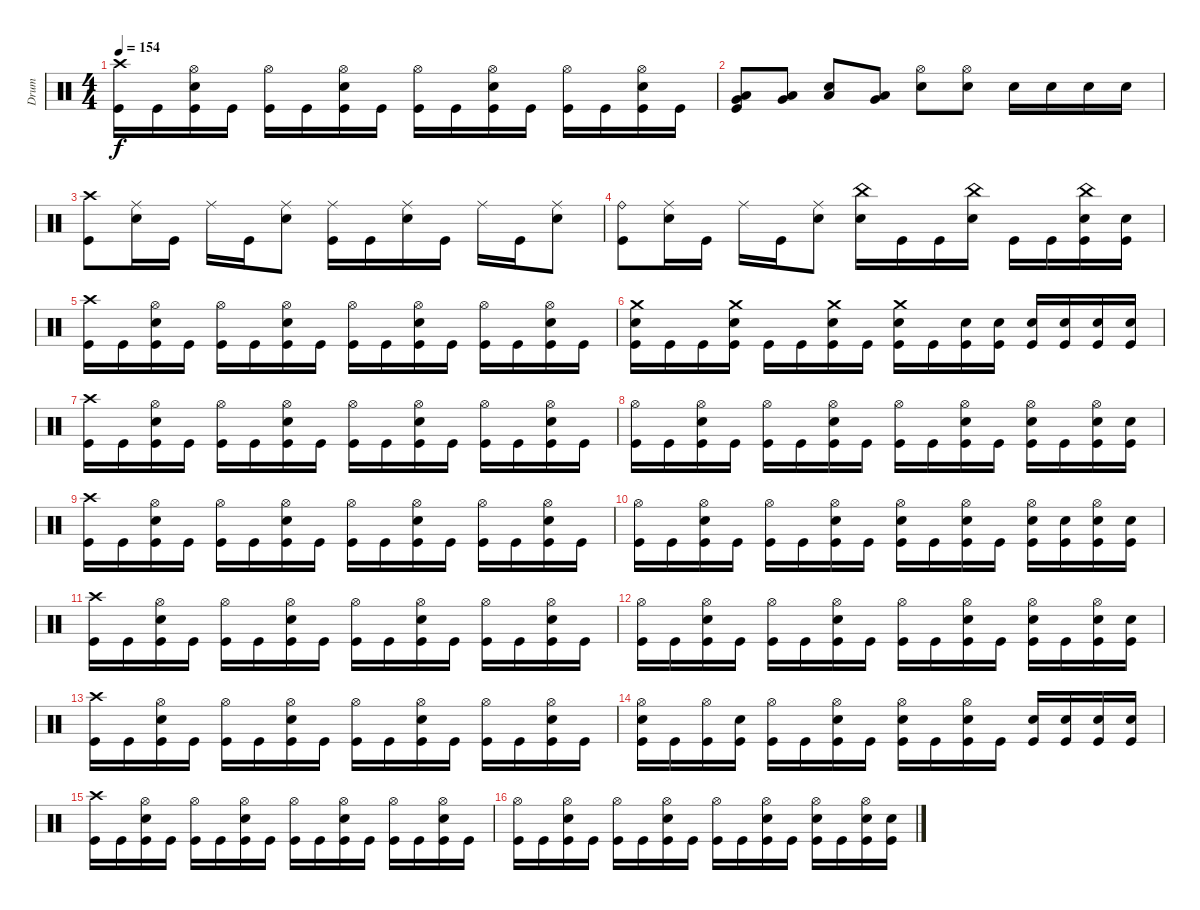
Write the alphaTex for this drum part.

\track ("Drum" "Drum") {instrument percussion}
\staff {score}
\articulation defaults
\ts (4 4)
\tempo 154
\clef neutral
\ks c
("Kick (hit)" "Crash high (hit)").16{dy f} "Kick (hit)".16 ("Kick (hit)" "Electric Snare (hit)" "Hi-Hat (open)").16 "Kick (hit)".16 ("Kick (hit)" "Hi-Hat (open)").16 "Kick (hit)".16 ("Kick (hit)" "Electric Snare (hit)" "Hi-Hat (open)").16 "Kick (hit)".16 ("Kick (hit)" "Hi-Hat (open)").16 "Kick (hit)".16 ("Kick (hit)" "Electric Snare (hit)" "Hi-Hat (open)").16 "Kick (hit)".16 ("Kick (hit)" "Hi-Hat (open)").16 "Kick (hit)".16 ("Kick (hit)" "Electric Snare (hit)" "Hi-Hat (open)").16 "Kick (hit)".16 |
("Kick (hit)" "Very Low Tom (hit)" "Low Tom (hit)").8 ("Very Low Tom (hit)" "Low Tom (hit)").8 ("Electric Snare (hit)" "Low Floor Tom (hit)").8 ("Very Low Tom (hit)" "Low Tom (hit)").8 ("Electric Snare (hit)" "Hi-Hat (open)").8 ("Electric Snare (hit)" "Hi-Hat (open)").8 "Electric Snare (hit)".16 "Electric Snare (hit)".16 "Electric Snare (hit)".16 "Electric Snare (hit)".16 |
("Kick (hit)" "Crash high (hit)").8 ("Electric Snare (hit)" "Ride (middle)").16 "Kick (hit)".16 "Ride (middle)".16 "Kick (hit)".16 ("Electric Snare (hit)" "Ride (middle)").8 ("Kick (hit)" "Ride (middle)").16 "Kick (hit)".16 ("Electric Snare (hit)" "Ride (middle)").16 "Kick (hit)".16 "Ride (middle)".16 "Kick (hit)".16 ("Electric Snare (hit)" "Ride (middle)").8 |
("Kick (hit)" "Ride (bell)").8 ("Electric Snare (hit)" "Ride (middle)").16 "Kick (hit)".16 "Ride (middle)".16 "Kick (hit)".16 ("Electric Snare (hit)" "Ride (middle)").8 ("Electric Snare (hit)" "China (hit)").16 "Kick (hit)".16 "Kick (hit)".16 ("Electric Snare (hit)" "China (hit)").16 "Kick (hit)".16 "Kick (hit)".16 ("Kick (hit)" "Electric Snare (hit)" "China (hit)").16 ("Kick (hit)" "Electric Snare (hit)").16 |
("Kick (hit)" "Crash high (hit)").16 "Kick (hit)".16 ("Kick (hit)" "Electric Snare (hit)" "Hi-Hat (open)").16 "Kick (hit)".16 ("Kick (hit)" "Hi-Hat (open)").16 "Kick (hit)".16 ("Kick (hit)" "Electric Snare (hit)" "Hi-Hat (open)").16 "Kick (hit)".16 ("Kick (hit)" "Hi-Hat (open)").16 "Kick (hit)".16 ("Kick (hit)" "Electric Snare (hit)" "Hi-Hat (open)").16 "Kick (hit)".16 ("Kick (hit)" "Hi-Hat (open)").16 "Kick (hit)".16 ("Kick (hit)" "Electric Snare (hit)" "Hi-Hat (open)").16 "Kick (hit)".16 |
("Kick (hit)" "Electric Snare (hit)" "Crash medium (hit)").16 "Kick (hit)".16 "Kick (hit)".16 ("Kick (hit)" "Electric Snare (hit)" "Crash medium (hit)").16 "Kick (hit)".16 "Kick (hit)".16 ("Kick (hit)" "Electric Snare (hit)" "Crash medium (hit)").16 "Kick (hit)".16 ("Kick (hit)" "Electric Snare (hit)" "Crash medium (hit)").16 "Kick (hit)".16 ("Kick (hit)" "Electric Snare (hit)").16 ("Kick (hit)" "Electric Snare (hit)").16 ("Kick (hit)" "Electric Snare (hit)").16 ("Kick (hit)" "Electric Snare (hit)").16 ("Kick (hit)" "Electric Snare (hit)").16 ("Kick (hit)" "Electric Snare (hit)").16 |
("Kick (hit)" "Crash high (hit)").16 "Kick (hit)".16 ("Kick (hit)" "Electric Snare (hit)" "Hi-Hat (open)").16 "Kick (hit)".16 ("Kick (hit)" "Hi-Hat (open)").16 "Kick (hit)".16 ("Kick (hit)" "Electric Snare (hit)" "Hi-Hat (open)").16 "Kick (hit)".16 ("Kick (hit)" "Hi-Hat (open)").16 "Kick (hit)".16 ("Kick (hit)" "Electric Snare (hit)" "Hi-Hat (open)").16 "Kick (hit)".16 ("Kick (hit)" "Hi-Hat (open)").16 "Kick (hit)".16 ("Kick (hit)" "Electric Snare (hit)" "Hi-Hat (open)").16 "Kick (hit)".16 |
("Kick (hit)" "Hi-Hat (open)").16 "Kick (hit)".16 ("Kick (hit)" "Electric Snare (hit)" "Hi-Hat (open)").16 "Kick (hit)".16 ("Kick (hit)" "Hi-Hat (open)").16 "Kick (hit)".16 ("Kick (hit)" "Electric Snare (hit)" "Hi-Hat (open)").16 "Kick (hit)".16 ("Kick (hit)" "Hi-Hat (open)").16 "Kick (hit)".16 ("Kick (hit)" "Electric Snare (hit)" "Hi-Hat (open)").16 "Kick (hit)".16 ("Kick (hit)" "Electric Snare (hit)" "Hi-Hat (open)").16 "Kick (hit)".16 ("Kick (hit)" "Electric Snare (hit)" "Hi-Hat (open)").16 ("Kick (hit)" "Electric Snare (hit)").16 |
("Kick (hit)" "Crash high (hit)").16 "Kick (hit)".16 ("Kick (hit)" "Electric Snare (hit)" "Hi-Hat (open)").16 "Kick (hit)".16 ("Kick (hit)" "Hi-Hat (open)").16 "Kick (hit)".16 ("Kick (hit)" "Electric Snare (hit)" "Hi-Hat (open)").16 "Kick (hit)".16 ("Kick (hit)" "Hi-Hat (open)").16 "Kick (hit)".16 ("Kick (hit)" "Electric Snare (hit)" "Hi-Hat (open)").16 "Kick (hit)".16 ("Kick (hit)" "Hi-Hat (open)").16 "Kick (hit)".16 ("Kick (hit)" "Electric Snare (hit)" "Hi-Hat (open)").16 "Kick (hit)".16 |
("Kick (hit)" "Hi-Hat (open)").16 "Kick (hit)".16 ("Kick (hit)" "Electric Snare (hit)" "Hi-Hat (open)").16 "Kick (hit)".16 ("Kick (hit)" "Hi-Hat (open)").16 "Kick (hit)".16 ("Kick (hit)" "Electric Snare (hit)" "Hi-Hat (open)").16 "Kick (hit)".16 ("Kick (hit)" "Electric Snare (hit)" "Hi-Hat (open)").16 "Kick (hit)".16 ("Kick (hit)" "Electric Snare (hit)" "Hi-Hat (open)").16 "Kick (hit)".16 ("Kick (hit)" "Electric Snare (hit)" "Hi-Hat (open)").16 ("Kick (hit)" "Electric Snare (hit)").16 ("Kick (hit)" "Electric Snare (hit)" "Hi-Hat (open)").16 ("Kick (hit)" "Electric Snare (hit)").16 |
("Kick (hit)" "Crash high (hit)").16 "Kick (hit)".16 ("Kick (hit)" "Electric Snare (hit)" "Hi-Hat (open)").16 "Kick (hit)".16 ("Kick (hit)" "Hi-Hat (open)").16 "Kick (hit)".16 ("Kick (hit)" "Electric Snare (hit)" "Hi-Hat (open)").16 "Kick (hit)".16 ("Kick (hit)" "Hi-Hat (open)").16 "Kick (hit)".16 ("Kick (hit)" "Electric Snare (hit)" "Hi-Hat (open)").16 "Kick (hit)".16 ("Kick (hit)" "Hi-Hat (open)").16 "Kick (hit)".16 ("Kick (hit)" "Electric Snare (hit)" "Hi-Hat (open)").16 "Kick (hit)".16 |
("Kick (hit)" "Hi-Hat (open)").16 "Kick (hit)".16 ("Kick (hit)" "Electric Snare (hit)" "Hi-Hat (open)").16 "Kick (hit)".16 ("Kick (hit)" "Hi-Hat (open)").16 "Kick (hit)".16 ("Kick (hit)" "Electric Snare (hit)" "Hi-Hat (open)").16 "Kick (hit)".16 ("Kick (hit)" "Hi-Hat (open)").16 "Kick (hit)".16 ("Kick (hit)" "Electric Snare (hit)" "Hi-Hat (open)").16 "Kick (hit)".16 ("Kick (hit)" "Electric Snare (hit)" "Hi-Hat (open)").16 "Kick (hit)".16 ("Kick (hit)" "Electric Snare (hit)" "Hi-Hat (open)").16 ("Kick (hit)" "Electric Snare (hit)").16 |
("Kick (hit)" "Crash high (hit)").16 "Kick (hit)".16 ("Kick (hit)" "Electric Snare (hit)" "Hi-Hat (open)").16 "Kick (hit)".16 ("Kick (hit)" "Hi-Hat (open)").16 "Kick (hit)".16 ("Kick (hit)" "Electric Snare (hit)" "Hi-Hat (open)").16 "Kick (hit)".16 ("Kick (hit)" "Hi-Hat (open)").16 "Kick (hit)".16 ("Kick (hit)" "Electric Snare (hit)" "Hi-Hat (open)").16 "Kick (hit)".16 ("Kick (hit)" "Hi-Hat (open)").16 "Kick (hit)".16 ("Kick (hit)" "Electric Snare (hit)" "Hi-Hat (open)").16 "Kick (hit)".16 |
("Kick (hit)" "Electric Snare (hit)" "Hi-Hat (open)").16 "Kick (hit)".16 ("Kick (hit)" "Hi-Hat (open)").16 ("Kick (hit)" "Electric Snare (hit)").16 ("Kick (hit)" "Hi-Hat (open)").16 "Kick (hit)".16 ("Kick (hit)" "Electric Snare (hit)" "Hi-Hat (open)").16 "Kick (hit)".16 ("Kick (hit)" "Electric Snare (hit)" "Hi-Hat (open)").16 "Kick (hit)".16 ("Kick (hit)" "Electric Snare (hit)" "Hi-Hat (open)").16 "Kick (hit)".16 ("Kick (hit)" "Electric Snare (hit)").16 ("Kick (hit)" "Electric Snare (hit)").16 ("Kick (hit)" "Electric Snare (hit)").16 ("Kick (hit)" "Electric Snare (hit)").16 |
("Kick (hit)" "Crash high (hit)").16 "Kick (hit)".16 ("Kick (hit)" "Electric Snare (hit)" "Hi-Hat (open)").16 "Kick (hit)".16 ("Kick (hit)" "Hi-Hat (open)").16 "Kick (hit)".16 ("Kick (hit)" "Electric Snare (hit)" "Hi-Hat (open)").16 "Kick (hit)".16 ("Kick (hit)" "Hi-Hat (open)").16 "Kick (hit)".16 ("Kick (hit)" "Electric Snare (hit)" "Hi-Hat (open)").16 "Kick (hit)".16 ("Kick (hit)" "Hi-Hat (open)").16 "Kick (hit)".16 ("Kick (hit)" "Electric Snare (hit)" "Hi-Hat (open)").16 "Kick (hit)".16 |
("Kick (hit)" "Hi-Hat (open)").16 "Kick (hit)".16 ("Kick (hit)" "Electric Snare (hit)" "Hi-Hat (open)").16 "Kick (hit)".16 ("Kick (hit)" "Hi-Hat (open)").16 "Kick (hit)".16 ("Kick (hit)" "Electric Snare (hit)" "Hi-Hat (open)").16 "Kick (hit)".16 ("Kick (hit)" "Hi-Hat (open)").16 "Kick (hit)".16 ("Kick (hit)" "Electric Snare (hit)" "Hi-Hat (open)").16 "Kick (hit)".16 ("Kick (hit)" "Electric Snare (hit)" "Hi-Hat (open)").16 "Kick (hit)".16 ("Kick (hit)" "Electric Snare (hit)" "Hi-Hat (open)").16 ("Kick (hit)" "Electric Snare (hit)").16
